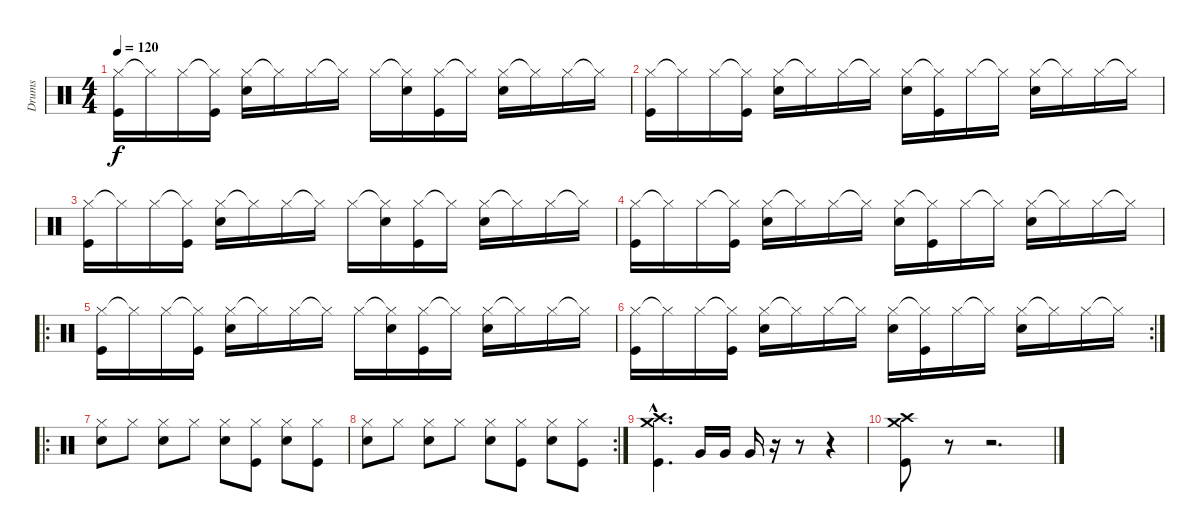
\track ("Drums" "Drums") {instrument percussion}
\staff {score}
\articulation defaults
\ts (4 4)
\tempo 120
\clef neutral
\ks c
("Hi-Hat (closed)" "Kick (hit)").16{dy f} "Hi-Hat (closed)"{t}.16 "Hi-Hat (closed)".16 ("Hi-Hat (closed)"{t} "Kick (hit)").16 ("Hi-Hat (closed)" "Snare (hit) 2").16 "Hi-Hat (closed)"{t}.16 "Hi-Hat (closed)".16 "Hi-Hat (closed)"{t}.16 "Hi-Hat (closed)".16 ("Hi-Hat (closed)"{t} "Snare (hit) 2").16 ("Hi-Hat (closed)" "Kick (hit)").16 "Hi-Hat (closed)"{t}.16 ("Hi-Hat (closed)" "Snare (hit) 2").16 "Hi-Hat (closed)"{t}.16 "Hi-Hat (closed)".16 "Hi-Hat (closed)"{t}.16 |
("Hi-Hat (closed)" "Kick (hit)").16 "Hi-Hat (closed)"{t}.16 "Hi-Hat (closed)".16 ("Hi-Hat (closed)"{t} "Kick (hit)").16 ("Hi-Hat (closed)" "Snare (hit) 2").16 "Hi-Hat (closed)"{t}.16 "Hi-Hat (closed)".16 "Hi-Hat (closed)"{t}.16 ("Hi-Hat (closed)" "Snare (hit) 2").16 ("Hi-Hat (closed)"{t} "Kick (hit)").16 "Hi-Hat (closed)".16 "Hi-Hat (closed)"{t}.16 ("Hi-Hat (closed)" "Snare (hit) 2").16 "Hi-Hat (closed)"{t}.16 "Hi-Hat (closed)".16 "Hi-Hat (closed)"{t}.16 |
("Hi-Hat (closed)" "Kick (hit)").16 "Hi-Hat (closed)"{t}.16 "Hi-Hat (closed)".16 ("Hi-Hat (closed)"{t} "Kick (hit)").16 ("Hi-Hat (closed)" "Snare (hit) 2").16 "Hi-Hat (closed)"{t}.16 "Hi-Hat (closed)".16 "Hi-Hat (closed)"{t}.16 "Hi-Hat (closed)".16 ("Hi-Hat (closed)"{t} "Snare (hit) 2").16 ("Hi-Hat (closed)" "Kick (hit)").16 "Hi-Hat (closed)"{t}.16 ("Hi-Hat (closed)" "Snare (hit) 2").16 "Hi-Hat (closed)"{t}.16 "Hi-Hat (closed)".16 "Hi-Hat (closed)"{t}.16 |
("Hi-Hat (closed)" "Kick (hit)").16 "Hi-Hat (closed)"{t}.16 "Hi-Hat (closed)".16 ("Hi-Hat (closed)"{t} "Kick (hit)").16 ("Hi-Hat (closed)" "Snare (hit) 2").16 "Hi-Hat (closed)"{t}.16 "Hi-Hat (closed)".16 "Hi-Hat (closed)"{t}.16 ("Hi-Hat (closed)" "Snare (hit) 2").16 ("Hi-Hat (closed)"{t} "Kick (hit)").16 "Hi-Hat (closed)".16 "Hi-Hat (closed)"{t}.16 ("Hi-Hat (closed)" "Snare (hit) 2").16 "Hi-Hat (closed)"{t}.16 "Hi-Hat (closed)".16 "Hi-Hat (closed)"{t}.16 |
\ro
("Hi-Hat (closed)" "Kick (hit)").16 "Hi-Hat (closed)"{t}.16 "Hi-Hat (closed)".16 ("Hi-Hat (closed)"{t} "Kick (hit)").16 ("Hi-Hat (closed)" "Snare (hit) 2").16 "Hi-Hat (closed)"{t}.16 "Hi-Hat (closed)".16 "Hi-Hat (closed)"{t}.16 "Hi-Hat (closed)".16 ("Hi-Hat (closed)"{t} "Snare (hit) 2").16 ("Hi-Hat (closed)" "Kick (hit)").16 "Hi-Hat (closed)"{t}.16 ("Hi-Hat (closed)" "Snare (hit) 2").16 "Hi-Hat (closed)"{t}.16 "Hi-Hat (closed)".16 "Hi-Hat (closed)"{t}.16 |
\rc 2
("Hi-Hat (closed)" "Kick (hit)").16 "Hi-Hat (closed)"{t}.16 "Hi-Hat (closed)".16 ("Hi-Hat (closed)"{t} "Kick (hit)").16 ("Hi-Hat (closed)" "Snare (hit) 2").16 "Hi-Hat (closed)"{t}.16 "Hi-Hat (closed)".16 "Hi-Hat (closed)"{t}.16 ("Hi-Hat (closed)" "Snare (hit) 2").16 ("Hi-Hat (closed)"{t} "Kick (hit)").16 "Hi-Hat (closed)".16 "Hi-Hat (closed)"{t}.16 ("Hi-Hat (closed)" "Snare (hit) 2").16 "Hi-Hat (closed)"{t}.16 "Hi-Hat (closed)".16 "Hi-Hat (closed)"{t}.16 |
\ro
("Hi-Hat (closed)" "Snare (hit) 2").8 "Hi-Hat (closed)".8 ("Hi-Hat (closed)" "Snare (hit) 2").8 "Hi-Hat (closed)".8 ("Hi-Hat (closed)" "Snare (hit) 2").8 ("Hi-Hat (closed)" "Kick (hit)").8 ("Hi-Hat (closed)" "Snare (hit) 2").8 ("Hi-Hat (closed)" "Kick (hit)").8 |
\rc 2
("Hi-Hat (closed)" "Snare (hit) 2").8 "Hi-Hat (closed)".8 ("Hi-Hat (closed)" "Snare (hit) 2").8 "Hi-Hat (closed)".8 ("Hi-Hat (closed)" "Snare (hit) 2").8 ("Hi-Hat (closed)" "Kick (hit)").8 ("Hi-Hat (closed)" "Snare (hit) 2").8 ("Hi-Hat (closed)" "Kick (hit)").8 |
("Crash high (hit)"{hac} "Kick (hit)"{hac} "Crash medium (hit)"{hac}).4{d} "Very Low Tom (hit)".16 "Very Low Tom (hit)".16 "Very Low Tom (hit)".16 r.16 r.8 r.4 |
("Crash high (hit)" "Kick (hit)" "Crash medium (hit)").8 r.8 r.2{d}
